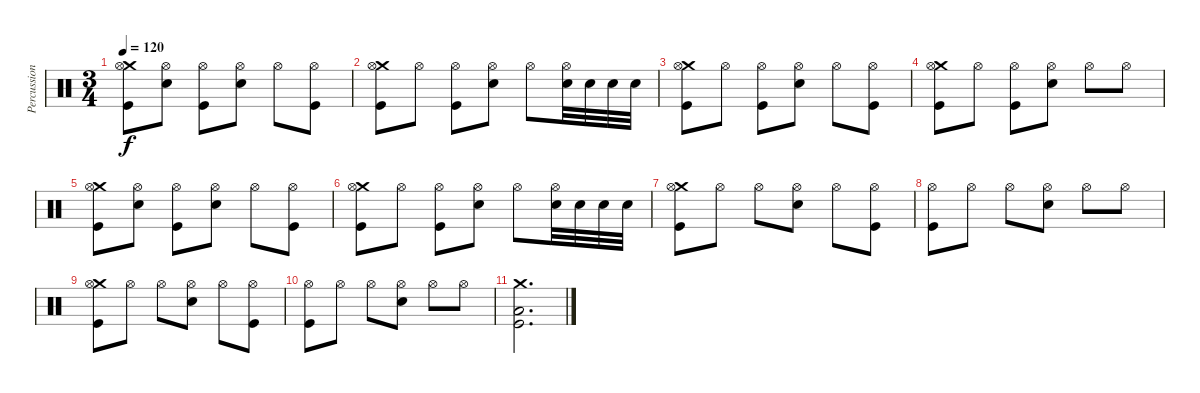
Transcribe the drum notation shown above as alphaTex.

\track ("Percussion" "Percussion") {instrument percussion}
\staff {score}
\articulation defaults
\ts (3 4)
\tempo 120
\clef neutral
\ks c
("Crash medium (hit)" "Hi-Hat (open)" "Kick (hit)").8{dy f} ("Hi-Hat (open)" "Electric Snare (hit)").8 ("Hi-Hat (open)" "Kick (hit)").8 ("Hi-Hat (open)" "Electric Snare (hit)").8 "Hi-Hat (open)".8 ("Hi-Hat (open)" "Kick (hit)").8 |
("Crash medium (hit)" "Hi-Hat (open)" "Kick (hit)").8 "Hi-Hat (open)".8 ("Hi-Hat (open)" "Kick (hit)").8 ("Hi-Hat (open)" "Electric Snare (hit)").8 "Hi-Hat (open)".8 ("Hi-Hat (open)" "Electric Snare (hit)").32 "Electric Snare (hit)".32 "Electric Snare (hit)".32 "Electric Snare (hit)".32 |
("Crash medium (hit)" "Hi-Hat (open)" "Kick (hit)").8 "Hi-Hat (open)".8 ("Hi-Hat (open)" "Kick (hit)").8 ("Hi-Hat (open)" "Electric Snare (hit)").8 "Hi-Hat (open)".8 ("Hi-Hat (open)" "Kick (hit)").8 |
("Crash medium (hit)" "Hi-Hat (open)" "Kick (hit)").8 "Hi-Hat (open)".8 ("Hi-Hat (open)" "Kick (hit)").8 ("Hi-Hat (open)" "Electric Snare (hit)").8 "Hi-Hat (open)".8 "Hi-Hat (open)".8 |
("Crash medium (hit)" "Hi-Hat (open)" "Kick (hit)").8 ("Hi-Hat (open)" "Electric Snare (hit)").8 ("Hi-Hat (open)" "Kick (hit)").8 ("Hi-Hat (open)" "Electric Snare (hit)").8 "Hi-Hat (open)".8 ("Hi-Hat (open)" "Kick (hit)").8 |
("Crash medium (hit)" "Hi-Hat (open)" "Kick (hit)").8 "Hi-Hat (open)".8 ("Hi-Hat (open)" "Kick (hit)").8 ("Hi-Hat (open)" "Electric Snare (hit)").8 "Hi-Hat (open)".8 ("Hi-Hat (open)" "Electric Snare (hit)").32 "Electric Snare (hit)".32 "Electric Snare (hit)".32 "Electric Snare (hit)".32 |
("Crash medium (hit)" "Hi-Hat (open)" "Kick (hit)").8 "Hi-Hat (open)".8 "Hi-Hat (open)".8 ("Electric Snare (hit)" "Hi-Hat (open)").8 "Hi-Hat (open)".8 ("Hi-Hat (open)" "Kick (hit)").8 |
("Hi-Hat (open)" "Kick (hit)").8 "Hi-Hat (open)".8 "Hi-Hat (open)".8 ("Electric Snare (hit)" "Hi-Hat (open)").8 "Hi-Hat (open)".8 "Hi-Hat (open)".8 |
("Crash medium (hit)" "Hi-Hat (open)" "Kick (hit)").8 "Hi-Hat (open)".8 "Hi-Hat (open)".8 ("Electric Snare (hit)" "Hi-Hat (open)").8 "Hi-Hat (open)".8 ("Hi-Hat (open)" "Kick (hit)").8 |
("Hi-Hat (open)" "Kick (hit)").8 "Hi-Hat (open)".8 "Hi-Hat (open)".8 ("Electric Snare (hit)" "Hi-Hat (open)").8 "Hi-Hat (open)".8 "Hi-Hat (open)".8 |
("Crash medium (hit)" "Low Floor Tom (hit)" "Kick (hit)").2{d}
